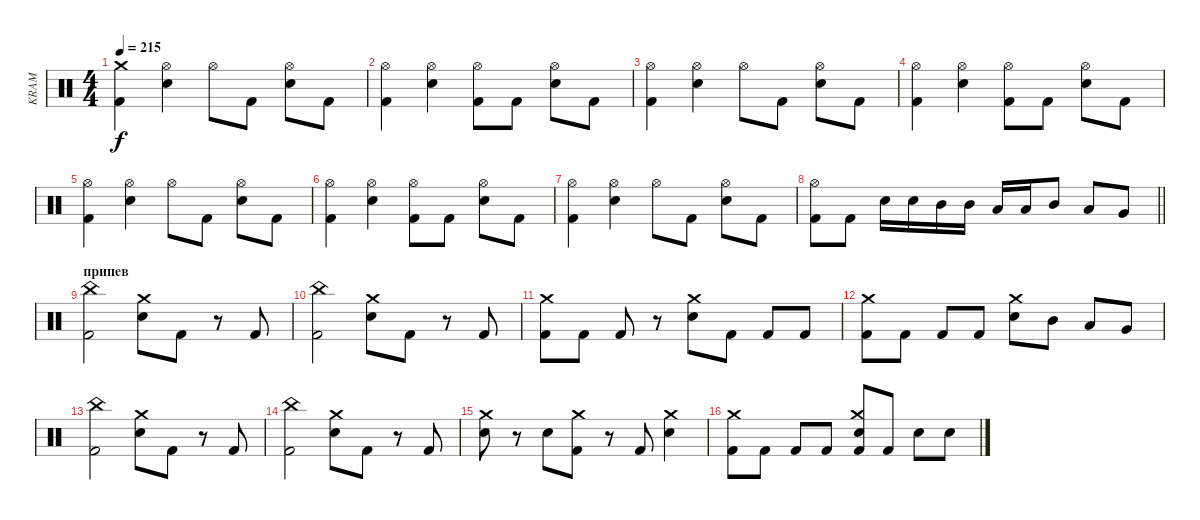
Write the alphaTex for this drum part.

\track ("KRAM" "KRAM") {instrument percussion}
\staff {score}
\articulation defaults
\ts (4 4)
\tempo 215
\clef neutral
\ks c
("Kick (hit) 2" "Crash medium (hit)").4{dy f} ("Electric Snare (hit)" "Hi-Hat (open)").4 "Hi-Hat (open)".8 "Kick (hit) 2".8 ("Electric Snare (hit)" "Hi-Hat (open)").8 "Kick (hit) 2".8 |
("Kick (hit) 2" "Hi-Hat (open)").4 ("Electric Snare (hit)" "Hi-Hat (open)").4 ("Kick (hit) 2" "Hi-Hat (open)").8 "Kick (hit) 2".8 ("Electric Snare (hit)" "Hi-Hat (open)").8 "Kick (hit) 2".8 |
("Kick (hit) 2" "Hi-Hat (open)").4 ("Electric Snare (hit)" "Hi-Hat (open)").4 "Hi-Hat (open)".8 "Kick (hit) 2".8 ("Electric Snare (hit)" "Hi-Hat (open)").8 "Kick (hit) 2".8 |
("Kick (hit) 2" "Hi-Hat (open)").4 ("Electric Snare (hit)" "Hi-Hat (open)").4 ("Kick (hit) 2" "Hi-Hat (open)").8 "Kick (hit) 2".8 ("Electric Snare (hit)" "Hi-Hat (open)").8 "Kick (hit) 2".8 |
("Kick (hit) 2" "Hi-Hat (open)").4 ("Electric Snare (hit)" "Hi-Hat (open)").4 "Hi-Hat (open)".8 "Kick (hit) 2".8 ("Electric Snare (hit)" "Hi-Hat (open)").8 "Kick (hit) 2".8 |
("Kick (hit) 2" "Hi-Hat (open)").4 ("Electric Snare (hit)" "Hi-Hat (open)").4 ("Kick (hit) 2" "Hi-Hat (open)").8 "Kick (hit) 2".8 ("Electric Snare (hit)" "Hi-Hat (open)").8 "Kick (hit) 2".8 |
("Kick (hit) 2" "Hi-Hat (open)").4 ("Electric Snare (hit)" "Hi-Hat (open)").4 "Hi-Hat (open)".8 "Kick (hit) 2".8 ("Electric Snare (hit)" "Hi-Hat (open)").8 "Kick (hit) 2".8 |
\barLineRight lightlight
("Kick (hit) 2" "Hi-Hat (open)").8 "Kick (hit) 2".8 "Electric Snare (hit)".16 "Electric Snare (hit)".16 "Mid Tom (hit)".16 "Mid Tom (hit)".16 "Low Tom (hit)".16 "Low Tom (hit)".16 "Mid Tom (hit)".8 "Low Tom (hit)".8 "Very Low Tom (hit)".8 |
\section ("" "припев")
("Kick (hit) 2" "China (hit)").2 ("Electric Snare (hit)" "Crash medium (hit)").8 "Kick (hit) 2".8 r.8 "Kick (hit) 2".8 |
("Kick (hit) 2" "China (hit)").2 ("Electric Snare (hit)" "Crash medium (hit)").8 "Kick (hit) 2".8 r.8 "Kick (hit) 2".8 |
("Kick (hit) 2" "Crash medium (hit)").8 "Kick (hit) 2".8 "Kick (hit) 2".8 r.8 ("Electric Snare (hit)" "Crash medium (hit)").8 "Kick (hit) 2".8 "Kick (hit) 2".8 "Kick (hit) 2".8 |
("Kick (hit) 2" "Crash medium (hit)").8 "Kick (hit) 2".8 "Kick (hit) 2".8 "Kick (hit) 2".8 ("Electric Snare (hit)" "Crash medium (hit)").8 "Mid Tom (hit)".8 "Low Tom (hit)".8 "Very Low Tom (hit)".8 |
("Kick (hit) 2" "China (hit)").2 ("Electric Snare (hit)" "Crash medium (hit)").8 "Kick (hit) 2".8 r.8 "Kick (hit) 2".8 |
("Kick (hit) 2" "China (hit)").2 ("Electric Snare (hit)" "Crash medium (hit)").8 "Kick (hit) 2".8 r.8 "Kick (hit) 2".8 |
("Electric Snare (hit)" "Crash medium (hit)").8 r.8 "Electric Snare (hit)".8 ("Kick (hit) 2" "Crash medium (hit)").8 r.8 "Kick (hit) 2".8 ("Electric Snare (hit)" "Crash medium (hit)").4 |
("Kick (hit) 2" "Crash medium (hit)").8 "Kick (hit) 2".8 "Kick (hit) 2".8 "Kick (hit) 2".8 ("Kick (hit) 2" "Electric Snare (hit)" "Crash medium (hit)").8 "Kick (hit) 2".8 "Electric Snare (hit)".8 "Electric Snare (hit)".8
